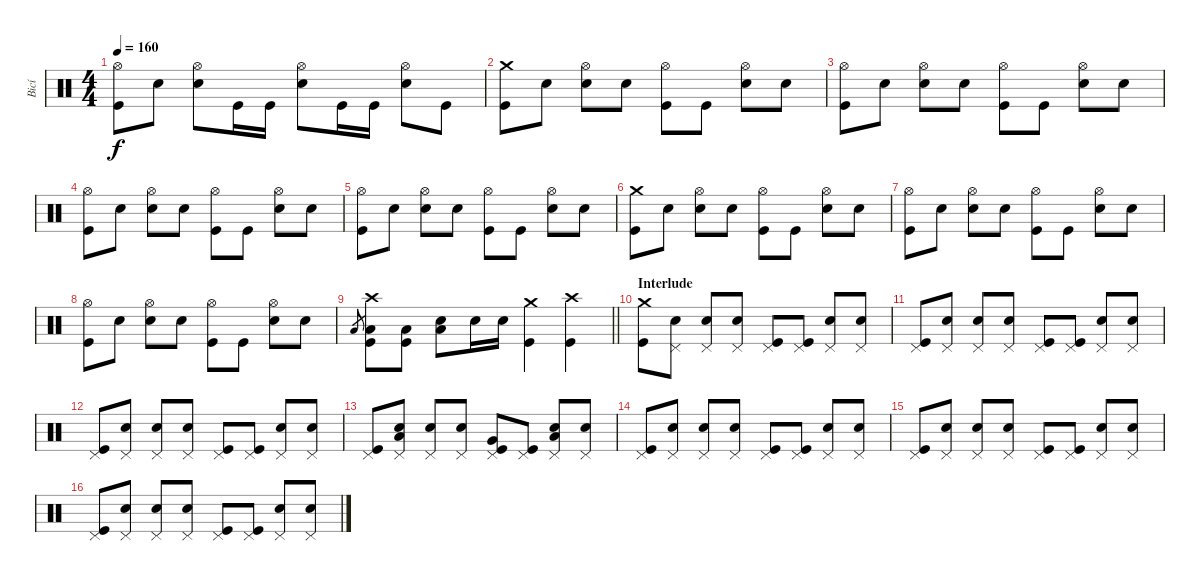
\track ("Bicí" "Bicí") {instrument percussion}
\staff {score}
\articulation defaults
\ts (4 4)
\tempo 160
\clef neutral
\ks c
("Hi-Hat (open)" "Kick (hit)").8{dy f} "Snare (hit)".8 ("Hi-Hat (open)" "Electric Snare (hit)").8 "Kick (hit)".16 "Kick (hit)".16 ("Hi-Hat (open)" "Electric Snare (hit)").8 "Kick (hit)".16 "Kick (hit)".16 ("Hi-Hat (open)" "Electric Snare (hit)").8 "Kick (hit)".8 |
("Crash medium (hit)" "Kick (hit)").8 "Snare (hit)".8 ("Hi-Hat (open)" "Electric Snare (hit)").8 "Snare (hit)".8 ("Hi-Hat (open)" "Kick (hit)").8 "Kick (hit)".8 ("Hi-Hat (open)" "Electric Snare (hit)").8 "Snare (hit)".8 |
("Hi-Hat (open)" "Kick (hit)").8 "Snare (hit)".8 ("Hi-Hat (open)" "Electric Snare (hit)").8 "Snare (hit)".8 ("Hi-Hat (open)" "Kick (hit)").8 "Kick (hit)".8 ("Hi-Hat (open)" "Electric Snare (hit)").8 "Snare (hit)".8 |
("Hi-Hat (open)" "Kick (hit)").8 "Snare (hit)".8 ("Hi-Hat (open)" "Electric Snare (hit)").8 "Snare (hit)".8 ("Hi-Hat (open)" "Kick (hit)").8 "Kick (hit)".8 ("Hi-Hat (open)" "Electric Snare (hit)").8 "Snare (hit)".8 |
("Hi-Hat (open)" "Kick (hit)").8 "Snare (hit)".8 ("Hi-Hat (open)" "Electric Snare (hit)").8 "Snare (hit)".8 ("Hi-Hat (open)" "Kick (hit)").8 "Kick (hit)".8 ("Hi-Hat (open)" "Electric Snare (hit)").8 "Snare (hit)".8 |
("Crash medium (hit)" "Kick (hit)").8 "Snare (hit)".8 ("Hi-Hat (open)" "Electric Snare (hit)").8 "Snare (hit)".8 ("Hi-Hat (open)" "Kick (hit)").8 "Kick (hit)".8 ("Hi-Hat (open)" "Electric Snare (hit)").8 "Snare (hit)".8 |
("Hi-Hat (open)" "Kick (hit)").8 "Snare (hit)".8 ("Hi-Hat (open)" "Electric Snare (hit)").8 "Snare (hit)".8 ("Hi-Hat (open)" "Kick (hit)").8 "Kick (hit)".8 ("Hi-Hat (open)" "Electric Snare (hit)").8 "Snare (hit)".8 |
("Hi-Hat (open)" "Kick (hit)").8 "Snare (hit)".8 ("Hi-Hat (open)" "Electric Snare (hit)").8 "Snare (hit)".8 ("Hi-Hat (open)" "Kick (hit)").8 "Kick (hit)".8 ("Hi-Hat (open)" "Electric Snare (hit)").8 "Snare (hit)".8 |
\barLineRight lightlight "Low Tom (hit)".8{gr}
("Crash high (hit)" "Low Tom (hit)" "Kick (hit)").8 ("Low Tom (hit)" "Kick (hit)").8 ("Low Tom (hit)" "Electric Snare (hit)").8 "Electric Snare (hit)".16 "Electric Snare (hit)".16 ("Crash medium (hit)" "Kick (hit)").4 ("Crash high (hit)" "Kick (hit)").4 |
\section ("" "Interlude")
("Crash medium (hit)" "Kick (hit)").8 ("Pedal Hi-Hat (hit)" "Snare (hit)").8 ("Pedal Hi-Hat (hit)" "Electric Snare (hit)").8 ("Pedal Hi-Hat (hit)" "Snare (hit)").8 ("Pedal Hi-Hat (hit)" "Kick (hit)").8 ("Pedal Hi-Hat (hit)" "Kick (hit)").8 ("Pedal Hi-Hat (hit)" "Electric Snare (hit)").8 ("Pedal Hi-Hat (hit)" "Snare (hit)").8 |
("Pedal Hi-Hat (hit)" "Kick (hit)").8 ("Pedal Hi-Hat (hit)" "Snare (hit)").8 ("Pedal Hi-Hat (hit)" "Electric Snare (hit)").8 ("Pedal Hi-Hat (hit)" "Snare (hit)").8 ("Pedal Hi-Hat (hit)" "Kick (hit)").8 ("Pedal Hi-Hat (hit)" "Kick (hit)").8 ("Pedal Hi-Hat (hit)" "Electric Snare (hit)").8 ("Pedal Hi-Hat (hit)" "Snare (hit)").8 |
("Pedal Hi-Hat (hit)" "Kick (hit)").8 ("Pedal Hi-Hat (hit)" "Snare (hit)").8 ("Pedal Hi-Hat (hit)" "Electric Snare (hit)").8 ("Pedal Hi-Hat (hit)" "Snare (hit)").8 ("Pedal Hi-Hat (hit)" "Kick (hit)").8 ("Pedal Hi-Hat (hit)" "Kick (hit)").8 ("Pedal Hi-Hat (hit)" "Electric Snare (hit)").8 ("Pedal Hi-Hat (hit)" "Snare (hit)").8 |
("Pedal Hi-Hat (hit)" "Kick (hit)").8 ("Pedal Hi-Hat (hit)" "Low Tom (hit)" "Snare (hit)").8 ("Pedal Hi-Hat (hit)" "Electric Snare (hit)").8 ("Pedal Hi-Hat (hit)" "Snare (hit)").8 ("Pedal Hi-Hat (hit)" "Very Low Tom (hit)" "Kick (hit)").8 ("Pedal Hi-Hat (hit)" "Kick (hit)").8 ("Pedal Hi-Hat (hit)" "Low Floor Tom (hit)" "Electric Snare (hit)").8 ("Pedal Hi-Hat (hit)" "Snare (hit)").8 |
("Pedal Hi-Hat (hit)" "Kick (hit)").8 ("Pedal Hi-Hat (hit)" "Snare (hit)").8 ("Pedal Hi-Hat (hit)" "Electric Snare (hit)").8 ("Pedal Hi-Hat (hit)" "Snare (hit)").8 ("Pedal Hi-Hat (hit)" "Kick (hit)").8 ("Pedal Hi-Hat (hit)" "Kick (hit)").8 ("Pedal Hi-Hat (hit)" "Electric Snare (hit)").8 ("Pedal Hi-Hat (hit)" "Snare (hit)").8 |
("Pedal Hi-Hat (hit)" "Kick (hit)").8 ("Pedal Hi-Hat (hit)" "Snare (hit)").8 ("Pedal Hi-Hat (hit)" "Electric Snare (hit)").8 ("Pedal Hi-Hat (hit)" "Snare (hit)").8 ("Pedal Hi-Hat (hit)" "Kick (hit)").8 ("Pedal Hi-Hat (hit)" "Kick (hit)").8 ("Pedal Hi-Hat (hit)" "Electric Snare (hit)").8 ("Pedal Hi-Hat (hit)" "Snare (hit)").8 |
("Pedal Hi-Hat (hit)" "Kick (hit)").8 ("Pedal Hi-Hat (hit)" "Snare (hit)").8 ("Pedal Hi-Hat (hit)" "Electric Snare (hit)").8 ("Pedal Hi-Hat (hit)" "Snare (hit)").8 ("Pedal Hi-Hat (hit)" "Kick (hit)").8 ("Pedal Hi-Hat (hit)" "Kick (hit)").8 ("Pedal Hi-Hat (hit)" "Electric Snare (hit)").8 ("Pedal Hi-Hat (hit)" "Snare (hit)").8
